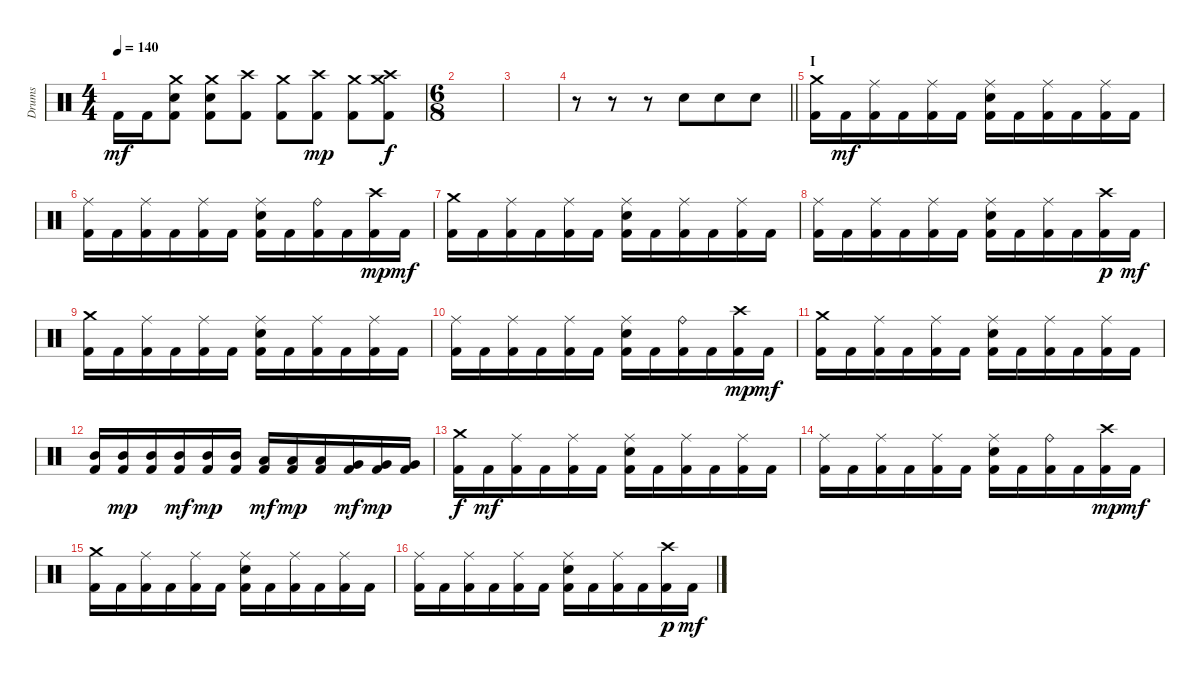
\track ("Drums" "Drums") {instrument percussion}
\staff {score}
\articulation defaults
\ts (4 4)
\tempo 140
\clef neutral
\ks c "Kick (hit) 2".16{dy mf} "Kick (hit) 2".16
("Kick (hit) 2" "Electric Snare (hit)" "Crash medium (hit)").8 ("Kick (hit) 2" "Electric Snare (hit)" "Crash medium (hit)").8 ("Kick (hit) 2" "Crash high (hit)").8 ("Kick (hit) 2" "Crash medium (hit)").8 ("Kick (hit) 2" "Crash high (hit)").8{dy mp} ("Kick (hit) 2" "Crash medium (hit)").8 ("Kick (hit) 2" "Crash high (hit)" "Crash medium (hit)").8{dy f} |
\ts (6 8)
|
|
\barLineRight lightlight
r.8 r.8 r.8 "Electric Snare (hit)".8 "Electric Snare (hit)".8 "Electric Snare (hit)".8 |
\section ("" "I")
("Kick (hit) 2" "Crash medium (hit)").16 "Kick (hit) 2".16{dy mf} ("Kick (hit) 2" "Ride (middle)").16 "Kick (hit) 2".16 ("Kick (hit) 2" "Ride (middle)").16 "Kick (hit) 2".16 ("Kick (hit) 2" "Electric Snare (hit)" "Ride (middle)").16 "Kick (hit) 2".16 ("Kick (hit) 2" "Ride (middle)").16 "Kick (hit) 2".16 ("Kick (hit) 2" "Ride (middle)").16 "Kick (hit) 2".16 |
("Kick (hit) 2" "Ride (middle)").16 "Kick (hit) 2".16 ("Kick (hit) 2" "Ride (middle)").16 "Kick (hit) 2".16 ("Kick (hit) 2" "Ride (middle)").16 "Kick (hit) 2".16 ("Kick (hit) 2" "Electric Snare (hit)" "Ride (middle)").16 "Kick (hit) 2".16 ("Kick (hit) 2" "Ride (bell)").16 "Kick (hit) 2".16 ("Kick (hit) 2" "Crash high (hit)").16{dy mp} "Kick (hit) 2".16{dy mf} |
("Kick (hit) 2" "Crash medium (hit)").16 "Kick (hit) 2".16 ("Kick (hit) 2" "Ride (middle)").16 "Kick (hit) 2".16 ("Kick (hit) 2" "Ride (middle)").16 "Kick (hit) 2".16 ("Kick (hit) 2" "Electric Snare (hit)" "Ride (middle)").16 "Kick (hit) 2".16 ("Kick (hit) 2" "Ride (middle)").16 "Kick (hit) 2".16 ("Kick (hit) 2" "Ride (middle)").16 "Kick (hit) 2".16 |
("Kick (hit) 2" "Ride (middle)").16 "Kick (hit) 2".16 ("Kick (hit) 2" "Ride (middle)").16 "Kick (hit) 2".16 ("Kick (hit) 2" "Ride (middle)").16 "Kick (hit) 2".16 ("Kick (hit) 2" "Electric Snare (hit)" "Ride (middle)").16 "Kick (hit) 2".16 ("Kick (hit) 2" "Ride (middle)").16 "Kick (hit) 2".16 ("Kick (hit) 2" "Crash high (hit)").16{dy p} "Kick (hit) 2".16{dy mf} |
("Kick (hit) 2" "Crash medium (hit)").16 "Kick (hit) 2".16 ("Kick (hit) 2" "Ride (middle)").16 "Kick (hit) 2".16 ("Kick (hit) 2" "Ride (middle)").16 "Kick (hit) 2".16 ("Kick (hit) 2" "Electric Snare (hit)" "Ride (middle)").16 "Kick (hit) 2".16 ("Kick (hit) 2" "Ride (middle)").16 "Kick (hit) 2".16 ("Kick (hit) 2" "Ride (middle)").16 "Kick (hit) 2".16 |
("Kick (hit) 2" "Ride (middle)").16 "Kick (hit) 2".16 ("Kick (hit) 2" "Ride (middle)").16 "Kick (hit) 2".16 ("Kick (hit) 2" "Ride (middle)").16 "Kick (hit) 2".16 ("Kick (hit) 2" "Electric Snare (hit)" "Ride (middle)").16 "Kick (hit) 2".16 ("Kick (hit) 2" "Ride (bell)").16 "Kick (hit) 2".16 ("Kick (hit) 2" "Crash high (hit)").16{dy mp} "Kick (hit) 2".16{dy mf} |
("Kick (hit) 2" "Crash medium (hit)").16 "Kick (hit) 2".16 ("Kick (hit) 2" "Ride (middle)").16 "Kick (hit) 2".16 ("Kick (hit) 2" "Ride (middle)").16 "Kick (hit) 2".16 ("Kick (hit) 2" "Electric Snare (hit)" "Ride (middle)").16 "Kick (hit) 2".16 ("Kick (hit) 2" "Ride (middle)").16 "Kick (hit) 2".16 ("Kick (hit) 2" "Ride (middle)").16 "Kick (hit) 2".16 |
("Kick (hit) 2" "Mid Tom (hit)").16 ("Kick (hit) 2" "Mid Tom (hit)").16{dy mp} ("Kick (hit) 2" "Mid Tom (hit)").16 ("Kick (hit) 2" "Mid Tom (hit)").16{dy mf} ("Kick (hit) 2" "Mid Tom (hit)").16{dy mp} ("Kick (hit) 2" "Mid Tom (hit)").16 ("Kick (hit) 2" "Low Tom (hit)").16{dy mf} ("Kick (hit) 2" "Low Tom (hit)").16{dy mp} ("Kick (hit) 2" "Low Tom (hit)").16 ("Kick (hit) 2" "Very Low Tom (hit)").16{dy mf} ("Kick (hit) 2" "Very Low Tom (hit)").16{dy mp} ("Kick (hit) 2" "Very Low Tom (hit)").16 |
("Kick (hit) 2" "Crash medium (hit)").16{dy f} "Kick (hit) 2".16{dy mf} ("Kick (hit) 2" "Ride (middle)").16 "Kick (hit) 2".16 ("Kick (hit) 2" "Ride (middle)").16 "Kick (hit) 2".16 ("Kick (hit) 2" "Electric Snare (hit)" "Ride (middle)").16 "Kick (hit) 2".16 ("Kick (hit) 2" "Ride (middle)").16 "Kick (hit) 2".16 ("Kick (hit) 2" "Ride (middle)").16 "Kick (hit) 2".16 |
("Kick (hit) 2" "Ride (middle)").16 "Kick (hit) 2".16 ("Kick (hit) 2" "Ride (middle)").16 "Kick (hit) 2".16 ("Kick (hit) 2" "Ride (middle)").16 "Kick (hit) 2".16 ("Kick (hit) 2" "Electric Snare (hit)" "Ride (middle)").16 "Kick (hit) 2".16 ("Kick (hit) 2" "Ride (bell)").16 "Kick (hit) 2".16 ("Kick (hit) 2" "Crash high (hit)").16{dy mp} "Kick (hit) 2".16{dy mf} |
("Kick (hit) 2" "Crash medium (hit)").16 "Kick (hit) 2".16 ("Kick (hit) 2" "Ride (middle)").16 "Kick (hit) 2".16 ("Kick (hit) 2" "Ride (middle)").16 "Kick (hit) 2".16 ("Kick (hit) 2" "Electric Snare (hit)" "Ride (middle)").16 "Kick (hit) 2".16 ("Kick (hit) 2" "Ride (middle)").16 "Kick (hit) 2".16 ("Kick (hit) 2" "Ride (middle)").16 "Kick (hit) 2".16 |
("Kick (hit) 2" "Ride (middle)").16 "Kick (hit) 2".16 ("Kick (hit) 2" "Ride (middle)").16 "Kick (hit) 2".16 ("Kick (hit) 2" "Ride (middle)").16 "Kick (hit) 2".16 ("Kick (hit) 2" "Electric Snare (hit)" "Ride (middle)").16 "Kick (hit) 2".16 ("Kick (hit) 2" "Ride (middle)").16 "Kick (hit) 2".16 ("Kick (hit) 2" "Crash high (hit)").16{dy p} "Kick (hit) 2".16{dy mf}
